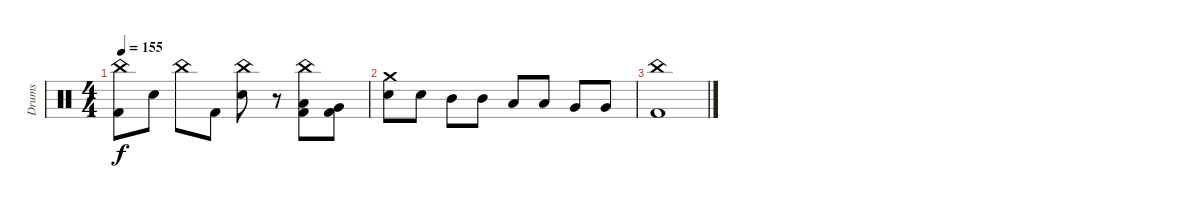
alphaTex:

\track ("Drums" "Drums") {instrument percussion}
\staff {score}
\articulation defaults
\ts (4 4)
\tempo 155
\clef neutral
\ks c
("China (hit)" "Kick (hit) 2").8{dy f} "Electric Snare (hit)".8 "China (hit)".8 "Kick (hit) 2".8 ("China (hit)" "Electric Snare (hit)").8 r.8 ("China (hit)" "Low Tom (hit)" "Kick (hit) 2").8 ("Very Low Tom (hit)" "Kick (hit) 2").8 |
("Crash medium (hit)" "Electric Snare (hit)").8 "Electric Snare (hit)".8 "Mid Tom (hit)".8 "Mid Tom (hit)".8 "Low Tom (hit)".8 "Low Tom (hit)".8 "Very Low Tom (hit)".8 "Very Low Tom (hit)".8 |
("China (hit)" "Kick (hit) 2").1
